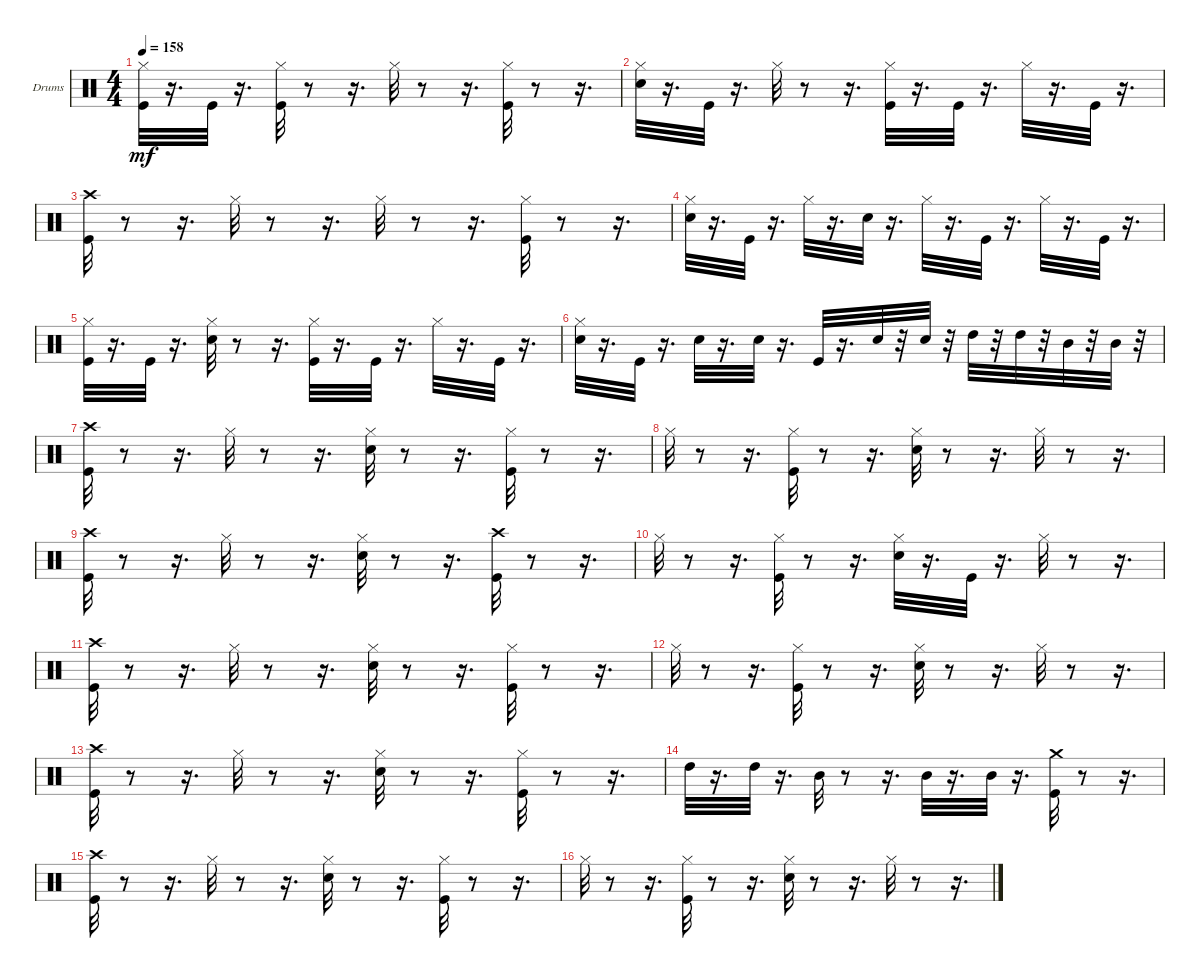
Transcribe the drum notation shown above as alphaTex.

\bracketExtendMode groupsimilarinstruments
\firstSystemTrackNameOrientation horizontal
\otherSystemsTrackNameOrientation horizontal
\track ("" "Drums") {instrument percussion}
\staff {score}
\articulation defaults
\ts (4 4)
\tempo 158
\clef neutral
\ks c
("Hi-Hat (closed)" "Kick (hit)").32{dy mf} r.16{d} "Kick (hit)".32 r.16{d} ("Kick (hit)" "Hi-Hat (closed)").32 r.8 r.16{d} "Hi-Hat (closed)".32 r.8 r.16{d} ("Hi-Hat (closed)" "Kick (hit)").32 r.8 r.16{d} |
("Snare (hit) 2" "Hi-Hat (closed)").32 r.16{d} "Kick (hit)".32 r.16{d} "Hi-Hat (closed)".32 r.8 r.16{d} ("Kick (hit)" "Hi-Hat (closed)").32 r.16{d} "Kick (hit)".32 r.16{d} "Hi-Hat (closed)".32 r.16{d} "Kick (hit)".32 r.16{d} |
("Crash high (hit)" "Kick (hit)").32 r.8 r.16{d} "Hi-Hat (closed)".32 r.8 r.16{d} "Hi-Hat (closed)".32 r.8 r.16{d} ("Hi-Hat (closed)" "Kick (hit)").32 r.8 r.16{d} |
("Snare (hit) 2" "Hi-Hat (closed)").32 r.16{d} "Kick (hit)".32 r.16{d} "Hi-Hat (closed)".32 r.16{d} "Snare (hit) 2".32 r.16{d} "Hi-Hat (closed)".32 r.16{d} "Kick (hit)".32 r.16{d} "Hi-Hat (closed)".32 r.16{d} "Kick (hit)".32 r.16{d} |
("Hi-Hat (closed)" "Kick (hit)").32 r.16{d} "Kick (hit)".32 r.16{d} ("Snare (hit) 2" "Hi-Hat (closed)").32 r.8 r.16{d} ("Kick (hit)" "Hi-Hat (closed)").32 r.16{d} "Kick (hit)".32 r.16{d} "Hi-Hat (closed)".32 r.16{d} "Kick (hit)".32 r.16{d} |
("Snare (hit) 2" "Hi-Hat (closed)").32 r.16{d} "Kick (hit)".32 r.16{d} "Snare (hit) 2".32 r.16{d} "Snare (hit) 2".32 r.16{d} "Kick (hit)".32 r.16{d} "Snare (hit) 2".32 r.32 "Snare (hit) 2".32 r.32 "High Tom (hit)".32 r.32 "High Tom (hit)".32 r.32 "Mid Tom (hit)".32 r.32 "Mid Tom (hit)".32 r.32 |
("Crash high (hit)" "Kick (hit)").32 r.8 r.16{d} "Hi-Hat (closed)".32 r.8 r.16{d} ("Snare (hit) 2" "Hi-Hat (closed)").32 r.8 r.16{d} ("Kick (hit)" "Hi-Hat (closed)").32 r.8 r.16{d} |
"Hi-Hat (closed)".32 r.8 r.16{d} ("Kick (hit)" "Hi-Hat (closed)").32 r.8 r.16{d} ("Snare (hit) 2" "Hi-Hat (closed)").32 r.8 r.16{d} "Hi-Hat (closed)".32 r.8 r.16{d} |
("Crash high (hit)" "Kick (hit)").32 r.8 r.16{d} "Hi-Hat (closed)".32 r.8 r.16{d} ("Snare (hit) 2" "Hi-Hat (closed)").32 r.8 r.16{d} ("Crash high (hit)" "Kick (hit)").32 r.8 r.16{d} |
"Hi-Hat (closed)".32 r.8 r.16{d} ("Hi-Hat (closed)" "Kick (hit)").32 r.8 r.16{d} ("Snare (hit) 2" "Hi-Hat (closed)").32 r.16{d} "Kick (hit)".32 r.16{d} "Hi-Hat (closed)".32 r.8 r.16{d} |
("Crash high (hit)" "Kick (hit)").32 r.8 r.16{d} "Hi-Hat (closed)".32 r.8 r.16{d} ("Snare (hit) 2" "Hi-Hat (closed)").32 r.8 r.16{d} ("Kick (hit)" "Hi-Hat (closed)").32 r.8 r.16{d} |
"Hi-Hat (closed)".32 r.8 r.16{d} ("Kick (hit)" "Hi-Hat (closed)").32 r.8 r.16{d} ("Snare (hit) 2" "Hi-Hat (closed)").32 r.8 r.16{d} "Hi-Hat (closed)".32 r.8 r.16{d} |
("Crash high (hit)" "Kick (hit)").32 r.8 r.16{d} "Hi-Hat (closed)".32 r.8 r.16{d} ("Snare (hit) 2" "Hi-Hat (closed)").32 r.8 r.16{d} ("Hi-Hat (closed)" "Kick (hit)").32 r.8 r.16{d} |
"High Tom (hit)".32 r.16{d} "High Tom (hit)".32 r.16{d} "Mid Tom (hit)".32 r.8 r.16{d} "Mid Tom (hit)".32 r.16{d} "Mid Tom (hit)".32 r.16{d} ("Crash medium (hit)" "Kick (hit)").32 r.8 r.16{d} |
("Crash high (hit)" "Kick (hit)").32 r.8 r.16{d} "Hi-Hat (closed)".32 r.8 r.16{d} ("Snare (hit) 2" "Hi-Hat (closed)").32 r.8 r.16{d} ("Kick (hit)" "Hi-Hat (closed)").32 r.8 r.16{d} |
"Hi-Hat (closed)".32 r.8 r.16{d} ("Kick (hit)" "Hi-Hat (closed)").32 r.8 r.16{d} ("Snare (hit) 2" "Hi-Hat (closed)").32 r.8 r.16{d} "Hi-Hat (closed)".32 r.8 r.16{d}
